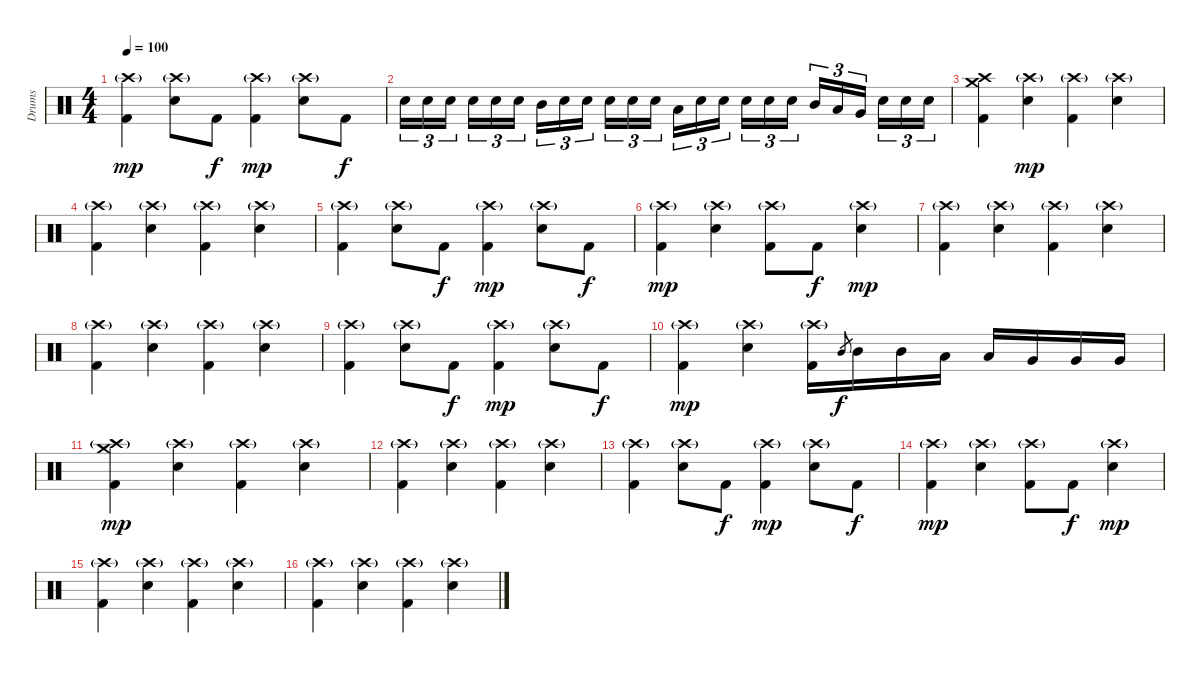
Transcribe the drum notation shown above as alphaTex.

\track ("Drums" "Drums") {instrument percussion}
\staff {score}
\articulation defaults
\ts (4 4)
\tempo 100
\clef neutral
\ks c
("Crash high (hit)"{g} "Kick (hit) 2").4{dy mp} ("Crash high (hit)"{g} "Electric Snare (hit)").8 "Kick (hit) 2".8{dy f} ("Crash high (hit)"{g} "Kick (hit) 2").4{dy mp} ("Crash high (hit)"{g} "Electric Snare (hit)").8 "Kick (hit) 2".8{dy f} |
"Electric Snare (hit)".16{tu (3 2)} "Electric Snare (hit)".16{tu (3 2)} "Electric Snare (hit)".16{tu (3 2) beam splitsecondary} "Electric Snare (hit)".16{tu (3 2)} "Electric Snare (hit)".16{tu (3 2)} "Electric Snare (hit)".16{tu (3 2)} "Mid Tom (hit)".16{tu (3 2)} "Electric Snare (hit)".16{tu (3 2)} "Electric Snare (hit)".16{tu (3 2) beam splitsecondary} "Electric Snare (hit)".16{tu (3 2)} "Electric Snare (hit)".16{tu (3 2)} "Electric Snare (hit)".16{tu (3 2)} "Low Tom (hit)".16{tu (3 2)} "Electric Snare (hit)".16{tu (3 2)} "Electric Snare (hit)".16{tu (3 2) beam splitsecondary} "Electric Snare (hit)".16{tu (3 2)} "Electric Snare (hit)".16{tu (3 2)} "Electric Snare (hit)".16{tu (3 2)} "Mid Tom (hit)".16{tu (3 2)} "Low Tom (hit)".16{tu (3 2)} "Very Low Tom (hit)".16{tu (3 2) beam splitsecondary} "Electric Snare (hit)".16{tu (3 2)} "Electric Snare (hit)".16{tu (3 2)} "Electric Snare (hit)".16{tu (3 2)} |
("Crash high (hit)" "Crash medium (hit)" "Kick (hit) 2").4 ("Crash high (hit)"{g} "Electric Snare (hit)").4{dy mp} ("Crash high (hit)"{g} "Kick (hit) 2").4 ("Crash high (hit)"{g} "Electric Snare (hit)").4 |
("Crash high (hit)"{g} "Kick (hit) 2").4 ("Crash high (hit)"{g} "Electric Snare (hit)").4 ("Crash high (hit)"{g} "Kick (hit) 2").4 ("Crash high (hit)"{g} "Electric Snare (hit)").4 |
("Crash high (hit)"{g} "Kick (hit) 2").4 ("Crash high (hit)"{g} "Electric Snare (hit)").8 "Kick (hit) 2".8{dy f} ("Crash high (hit)"{g} "Kick (hit) 2").4{dy mp} ("Crash high (hit)"{g} "Electric Snare (hit)").8 "Kick (hit) 2".8{dy f} |
("Crash high (hit)"{g} "Kick (hit) 2").4{dy mp} ("Crash high (hit)"{g} "Electric Snare (hit)").4 ("Crash high (hit)"{g} "Kick (hit) 2").8 "Kick (hit) 2".8{dy f} ("Crash high (hit)"{g} "Electric Snare (hit)").4{dy mp} |
("Crash high (hit)"{g} "Kick (hit) 2").4 ("Crash high (hit)"{g} "Electric Snare (hit)").4 ("Crash high (hit)"{g} "Kick (hit) 2").4 ("Crash high (hit)"{g} "Electric Snare (hit)").4 |
("Crash high (hit)"{g} "Kick (hit) 2").4 ("Crash high (hit)"{g} "Electric Snare (hit)").4 ("Crash high (hit)"{g} "Kick (hit) 2").4 ("Crash high (hit)"{g} "Electric Snare (hit)").4 |
("Crash high (hit)"{g} "Kick (hit) 2").4 ("Crash high (hit)"{g} "Electric Snare (hit)").8 "Kick (hit) 2".8{dy f} ("Crash high (hit)"{g} "Kick (hit) 2").4{dy mp} ("Crash high (hit)"{g} "Electric Snare (hit)").8 "Kick (hit) 2".8{dy f} |
("Crash high (hit)"{g} "Kick (hit) 2").4{dy mp} ("Crash high (hit)"{g} "Electric Snare (hit)").4 ("Crash high (hit)"{g} "Kick (hit) 2").16 "Mid Tom (hit)".8{gr dy f} "Mid Tom (hit)".16 "Mid Tom (hit)".16 "Low Tom (hit)".16 "Low Tom (hit)".16 "Very Low Tom (hit)".16 "Very Low Tom (hit)".16 "Very Low Tom (hit)".16 |
("Crash high (hit)"{g} "Crash medium (hit)" "Kick (hit) 2").4{dy mp} ("Crash high (hit)"{g} "Electric Snare (hit)").4 ("Crash high (hit)"{g} "Kick (hit) 2").4 ("Crash high (hit)"{g} "Electric Snare (hit)").4 |
("Crash high (hit)"{g} "Kick (hit) 2").4 ("Crash high (hit)"{g} "Electric Snare (hit)").4 ("Crash high (hit)"{g} "Kick (hit) 2").4 ("Crash high (hit)"{g} "Electric Snare (hit)").4 |
("Crash high (hit)"{g} "Kick (hit) 2").4 ("Crash high (hit)"{g} "Electric Snare (hit)").8 "Kick (hit) 2".8{dy f} ("Crash high (hit)"{g} "Kick (hit) 2").4{dy mp} ("Crash high (hit)"{g} "Electric Snare (hit)").8 "Kick (hit) 2".8{dy f} |
("Crash high (hit)"{g} "Kick (hit) 2").4{dy mp} ("Crash high (hit)"{g} "Electric Snare (hit)").4 ("Crash high (hit)"{g} "Kick (hit) 2").8 "Kick (hit) 2".8{dy f} ("Crash high (hit)"{g} "Electric Snare (hit)").4{dy mp} |
("Crash high (hit)"{g} "Kick (hit) 2").4 ("Crash high (hit)"{g} "Electric Snare (hit)").4 ("Crash high (hit)"{g} "Kick (hit) 2").4 ("Crash high (hit)"{g} "Electric Snare (hit)").4 |
("Crash high (hit)"{g} "Kick (hit) 2").4 ("Crash high (hit)"{g} "Electric Snare (hit)").4 ("Crash high (hit)"{g} "Kick (hit) 2").4 ("Crash high (hit)"{g} "Electric Snare (hit)").4
